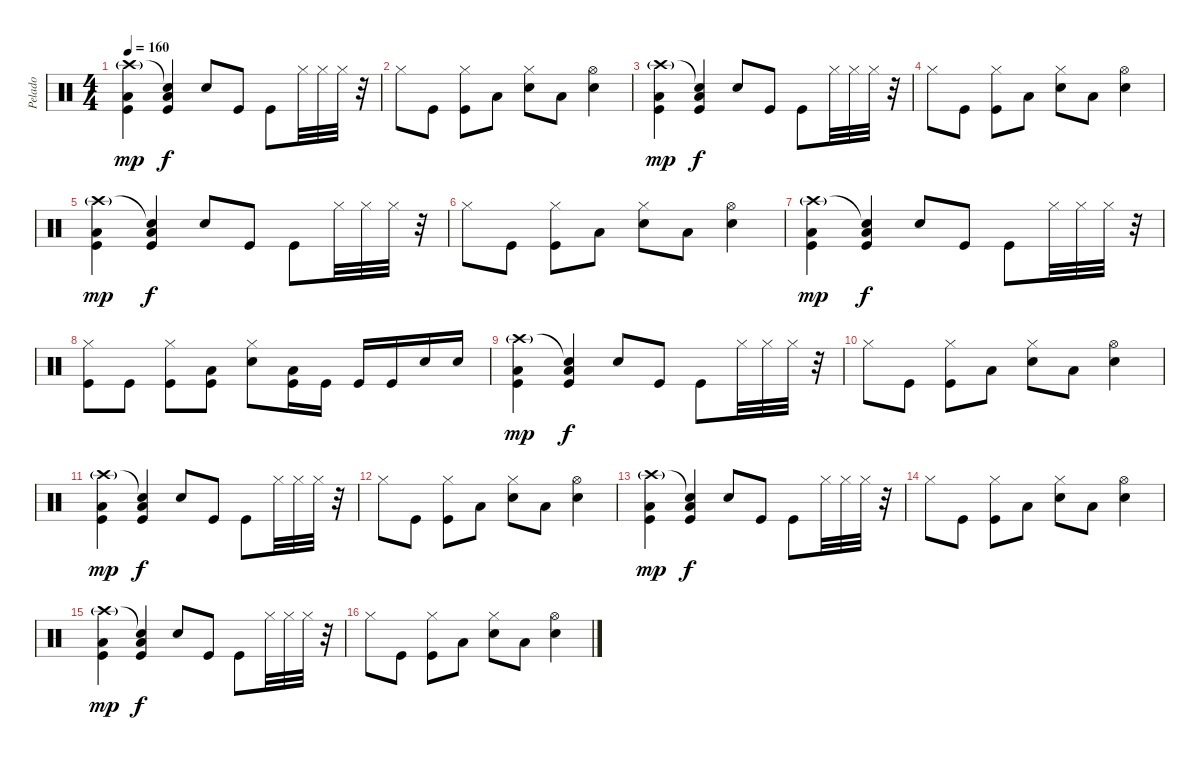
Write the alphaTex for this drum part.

\track ("Pelado" "Pelado") {instrument percussion}
\staff {score}
\articulation defaults
\ts (4 4)
\tempo 160
\clef neutral
\ks c
("Crash high (hit)"{g} "Kick (hit)" "Low Tom (hit)").4{dy mp} ("Snare (hit)"{t} "Kick (hit)" "Low Tom (hit)").4{dy f} "Snare (hit) 2".8 "Kick (hit)".8 "Kick (hit)".8 "Hi-Hat (closed)".32 "Hi-Hat (closed)".32 "Hi-Hat (closed)".32 r.32 |
"Hi-Hat (closed)".8 "Kick (hit)".8 ("Hi-Hat (closed)" "Kick (hit)").8 "Low Tom (hit)".8 ("Hi-Hat (closed)" "Snare (hit) 2").8 "Low Tom (hit)".8 ("Hi-Hat (open)" "Snare (hit) 2").4 |
("Crash high (hit)"{g} "Kick (hit)" "Low Tom (hit)").4{dy mp} ("Snare (hit)"{t} "Kick (hit)" "Low Tom (hit)").4{dy f} "Snare (hit) 2".8 "Kick (hit)".8 "Kick (hit)".8 "Hi-Hat (closed)".32 "Hi-Hat (closed)".32 "Hi-Hat (closed)".32 r.32 |
"Hi-Hat (closed)".8 "Kick (hit)".8 ("Hi-Hat (closed)" "Kick (hit)").8 "Low Tom (hit)".8 ("Hi-Hat (closed)" "Snare (hit) 2").8 "Low Tom (hit)".8 ("Hi-Hat (open)" "Snare (hit) 2").4 |
("Crash high (hit)"{g} "Kick (hit)" "Low Tom (hit)").4{dy mp} ("Snare (hit)"{t} "Kick (hit)" "Low Tom (hit)").4{dy f} "Snare (hit) 2".8 "Kick (hit)".8 "Kick (hit)".8 "Hi-Hat (closed)".32 "Hi-Hat (closed)".32 "Hi-Hat (closed)".32 r.32 |
"Hi-Hat (closed)".8 "Kick (hit)".8 ("Hi-Hat (closed)" "Kick (hit)").8 "Low Tom (hit)".8 ("Hi-Hat (closed)" "Snare (hit) 2").8 "Low Tom (hit)".8 ("Hi-Hat (open)" "Snare (hit) 2").4 |
("Crash high (hit)"{g} "Kick (hit)" "Low Tom (hit)").4{dy mp} ("Snare (hit)"{t} "Kick (hit)" "Low Tom (hit)").4{dy f} "Snare (hit) 2".8 "Kick (hit)".8 "Kick (hit)".8 "Hi-Hat (closed)".32 "Hi-Hat (closed)".32 "Hi-Hat (closed)".32 r.32 |
("Hi-Hat (closed)" "Kick (hit)").8 "Kick (hit)".8 ("Hi-Hat (closed)" "Kick (hit)").8 ("Kick (hit)" "Low Tom (hit)").8 ("Hi-Hat (closed)" "Snare (hit) 2").8 ("Kick (hit)" "Low Tom (hit)").16 "Kick (hit)".16 "Kick (hit)".16 "Kick (hit)".16 "Snare (hit) 2".16 "Snare (hit) 2".16 |
("Crash high (hit)"{g} "Kick (hit)" "Low Tom (hit)").4{dy mp} ("Snare (hit)"{t} "Kick (hit)" "Low Tom (hit)").4{dy f} "Snare (hit) 2".8 "Kick (hit)".8 "Kick (hit)".8 "Hi-Hat (closed)".32 "Hi-Hat (closed)".32 "Hi-Hat (closed)".32 r.32 |
"Hi-Hat (closed)".8 "Kick (hit)".8 ("Hi-Hat (closed)" "Kick (hit)").8 "Low Tom (hit)".8 ("Hi-Hat (closed)" "Snare (hit) 2").8 "Low Tom (hit)".8 ("Hi-Hat (open)" "Snare (hit) 2").4 |
("Crash high (hit)"{g} "Kick (hit)" "Low Tom (hit)").4{dy mp} ("Snare (hit)"{t} "Kick (hit)" "Low Tom (hit)").4{dy f} "Snare (hit) 2".8 "Kick (hit)".8 "Kick (hit)".8 "Hi-Hat (closed)".32 "Hi-Hat (closed)".32 "Hi-Hat (closed)".32 r.32 |
"Hi-Hat (closed)".8 "Kick (hit)".8 ("Hi-Hat (closed)" "Kick (hit)").8 "Low Tom (hit)".8 ("Hi-Hat (closed)" "Snare (hit) 2").8 "Low Tom (hit)".8 ("Hi-Hat (open)" "Snare (hit) 2").4 |
("Crash high (hit)"{g} "Kick (hit)" "Low Tom (hit)").4{dy mp} ("Snare (hit)"{t} "Kick (hit)" "Low Tom (hit)").4{dy f} "Snare (hit) 2".8 "Kick (hit)".8 "Kick (hit)".8 "Hi-Hat (closed)".32 "Hi-Hat (closed)".32 "Hi-Hat (closed)".32 r.32 |
"Hi-Hat (closed)".8 "Kick (hit)".8 ("Hi-Hat (closed)" "Kick (hit)").8 "Low Tom (hit)".8 ("Hi-Hat (closed)" "Snare (hit) 2").8 "Low Tom (hit)".8 ("Hi-Hat (open)" "Snare (hit) 2").4 |
("Crash high (hit)"{g} "Kick (hit)" "Low Tom (hit)").4{dy mp} ("Snare (hit)"{t} "Kick (hit)" "Low Tom (hit)").4{dy f} "Snare (hit) 2".8 "Kick (hit)".8 "Kick (hit)".8 "Hi-Hat (closed)".32 "Hi-Hat (closed)".32 "Hi-Hat (closed)".32 r.32 |
"Hi-Hat (closed)".8 "Kick (hit)".8 ("Hi-Hat (closed)" "Kick (hit)").8 "Low Tom (hit)".8 ("Hi-Hat (closed)" "Snare (hit) 2").8 "Low Tom (hit)".8 ("Hi-Hat (open)" "Snare (hit) 2").4
